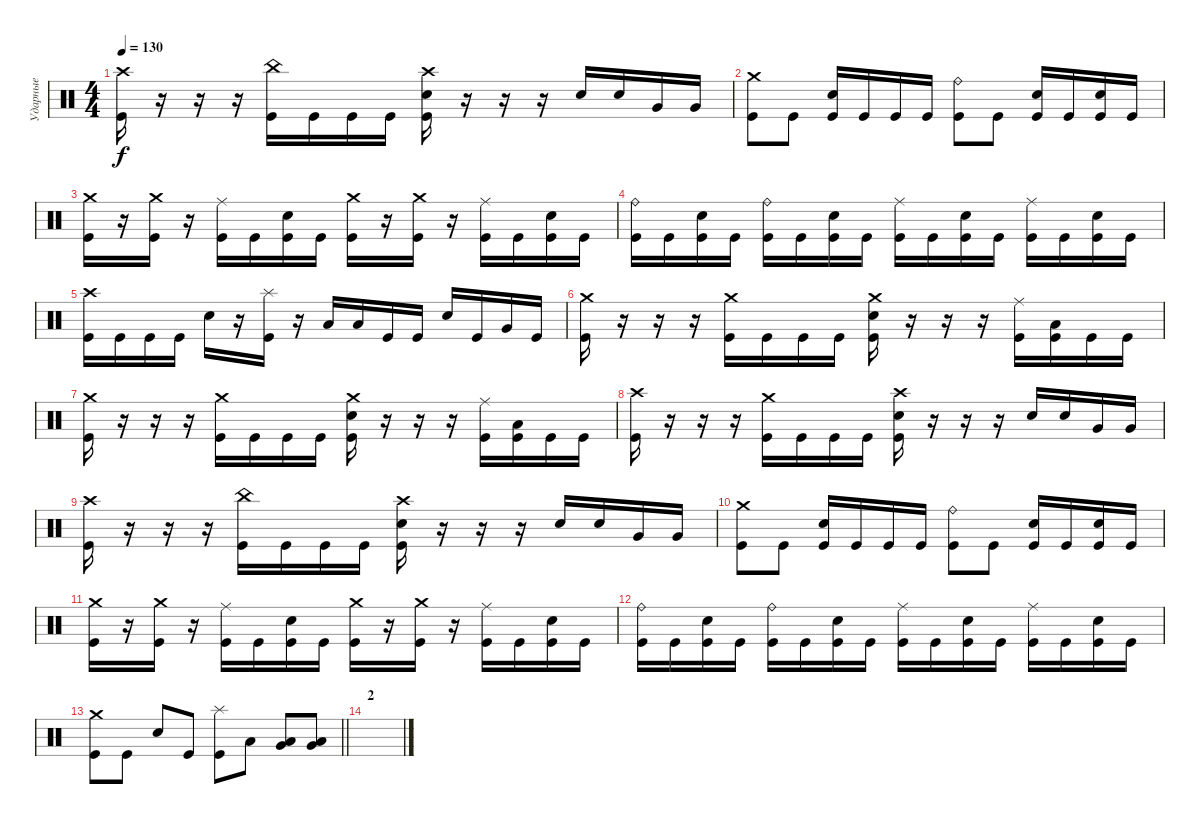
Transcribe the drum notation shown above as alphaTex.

\track ("Ударные" "Ударные") {instrument percussion}
\staff {score}
\articulation defaults
\ts (4 4)
\tempo 130
\clef neutral
\ks c
("Crash high (hit)" "Kick (hit)").16{dy f} r.16 r.16 r.16 ("China (hit)" "Kick (hit)").16 "Kick (hit)".16 "Kick (hit)".16 "Kick (hit)".16 ("Crash high (hit)" "Electric Snare (hit)" "Kick (hit)").16 r.16 r.16 r.16 "Electric Snare (hit)".16 "Electric Snare (hit)".16 "Very Low Tom (hit)".16 "Very Low Tom (hit)".16 |
("Crash medium (hit)" "Kick (hit)").8 "Kick (hit)".8 ("Electric Snare (hit)" "Kick (hit)").16 "Kick (hit)".16 "Kick (hit)".16 "Kick (hit)".16 ("Ride (bell)" "Kick (hit)").8 "Kick (hit)".8 ("Electric Snare (hit)" "Kick (hit)").16 "Kick (hit)".16 ("Electric Snare (hit)" "Kick (hit)").16 "Kick (hit)".16 |
("Crash medium (hit)" "Kick (hit)").16 r.16 ("Crash medium (hit)" "Kick (hit)").16 r.16 ("Ride (middle)" "Kick (hit)").16 "Kick (hit)".16 ("Electric Snare (hit)" "Kick (hit)").16 "Kick (hit)".16 ("Crash medium (hit)" "Kick (hit)").16 r.16 ("Crash medium (hit)" "Kick (hit)").16 r.16 ("Ride (middle)" "Kick (hit)").16 "Kick (hit)".16 ("Electric Snare (hit)" "Kick (hit)").16 "Kick (hit)".16 |
("Ride (bell)" "Kick (hit)").16 "Kick (hit)".16 ("Electric Snare (hit)" "Kick (hit)").16 "Kick (hit)".16 ("Ride (bell)" "Kick (hit)").16 "Kick (hit)".16 ("Electric Snare (hit)" "Kick (hit)").16 "Kick (hit)".16 ("Ride (middle)" "Kick (hit)").16 "Kick (hit)".16 ("Electric Snare (hit)" "Kick (hit)").16 "Kick (hit)".16 ("Ride (middle)" "Kick (hit)").16 "Kick (hit)".16 ("Electric Snare (hit)" "Kick (hit)").16 "Kick (hit)".16 |
("Crash high (hit)" "Kick (hit)").16 "Kick (hit)".16 "Kick (hit)".16 "Kick (hit)".16 "Electric Snare (hit)".16 r.16 ("Splash (hit)" "Kick (hit)").16 r.16 "Low Tom (hit)".16 "Low Tom (hit)".16 "Kick (hit)".16 "Kick (hit)".16 "Electric Snare (hit)".16 "Kick (hit)".16 "Very Low Tom (hit)".16 "Kick (hit)".16 |
("Crash medium (hit)" "Kick (hit)").16 r.16 r.16 r.16 ("Crash medium (hit)" "Kick (hit)").16 "Kick (hit)".16 "Kick (hit)".16 "Kick (hit)".16 ("Crash medium (hit)" "Electric Snare (hit)" "Kick (hit)").16 r.16 r.16 r.16 ("Ride (middle)" "Kick (hit)").16 ("Low Tom (hit)" "Kick (hit)").16 "Kick (hit)".16 "Kick (hit)".16 |
("Crash medium (hit)" "Kick (hit)").16 r.16 r.16 r.16 ("Crash medium (hit)" "Kick (hit)").16 "Kick (hit)".16 "Kick (hit)".16 "Kick (hit)".16 ("Crash medium (hit)" "Electric Snare (hit)" "Kick (hit)").16 r.16 r.16 r.16 ("Ride (middle)" "Kick (hit)").16 ("Low Tom (hit)" "Kick (hit)").16 "Kick (hit)".16 "Kick (hit)".16 |
("Crash high (hit)" "Kick (hit)").16 r.16 r.16 r.16 ("Crash medium (hit)" "Kick (hit)").16 "Kick (hit)".16 "Kick (hit)".16 "Kick (hit)".16 ("Crash high (hit)" "Electric Snare (hit)" "Kick (hit)").16 r.16 r.16 r.16 "Electric Snare (hit)".16 "Electric Snare (hit)".16 "Very Low Tom (hit)".16 "Very Low Tom (hit)".16 |
("Crash high (hit)" "Kick (hit)").16 r.16 r.16 r.16 ("China (hit)" "Kick (hit)").16 "Kick (hit)".16 "Kick (hit)".16 "Kick (hit)".16 ("Crash high (hit)" "Electric Snare (hit)" "Kick (hit)").16 r.16 r.16 r.16 "Electric Snare (hit)".16 "Electric Snare (hit)".16 "Very Low Tom (hit)".16 "Very Low Tom (hit)".16 |
("Crash medium (hit)" "Kick (hit)").8 "Kick (hit)".8 ("Electric Snare (hit)" "Kick (hit)").16 "Kick (hit)".16 "Kick (hit)".16 "Kick (hit)".16 ("Ride (bell)" "Kick (hit)").8 "Kick (hit)".8 ("Electric Snare (hit)" "Kick (hit)").16 "Kick (hit)".16 ("Electric Snare (hit)" "Kick (hit)").16 "Kick (hit)".16 |
("Crash medium (hit)" "Kick (hit)").16 r.16 ("Crash medium (hit)" "Kick (hit)").16 r.16 ("Ride (middle)" "Kick (hit)").16 "Kick (hit)".16 ("Electric Snare (hit)" "Kick (hit)").16 "Kick (hit)".16 ("Crash medium (hit)" "Kick (hit)").16 r.16 ("Crash medium (hit)" "Kick (hit)").16 r.16 ("Ride (middle)" "Kick (hit)").16 "Kick (hit)".16 ("Electric Snare (hit)" "Kick (hit)").16 "Kick (hit)".16 |
("Ride (bell)" "Kick (hit)").16 "Kick (hit)".16 ("Electric Snare (hit)" "Kick (hit)").16 "Kick (hit)".16 ("Ride (bell)" "Kick (hit)").16 "Kick (hit)".16 ("Electric Snare (hit)" "Kick (hit)").16 "Kick (hit)".16 ("Ride (middle)" "Kick (hit)").16 "Kick (hit)".16 ("Electric Snare (hit)" "Kick (hit)").16 "Kick (hit)".16 ("Ride (middle)" "Kick (hit)").16 "Kick (hit)".16 ("Electric Snare (hit)" "Kick (hit)").16 "Kick (hit)".16 |
\barLineRight lightlight
("Crash medium (hit)" "Kick (hit)").8 "Kick (hit)".8 "Electric Snare (hit)".8 "Kick (hit)".8 ("Splash (hit)" "Kick (hit)").8 "Low Tom (hit)".8 ("Very Low Tom (hit)" "Low Floor Tom (hit)").8 ("Very Low Tom (hit)" "Low Floor Tom (hit)").8 |
\section ("" "2")
